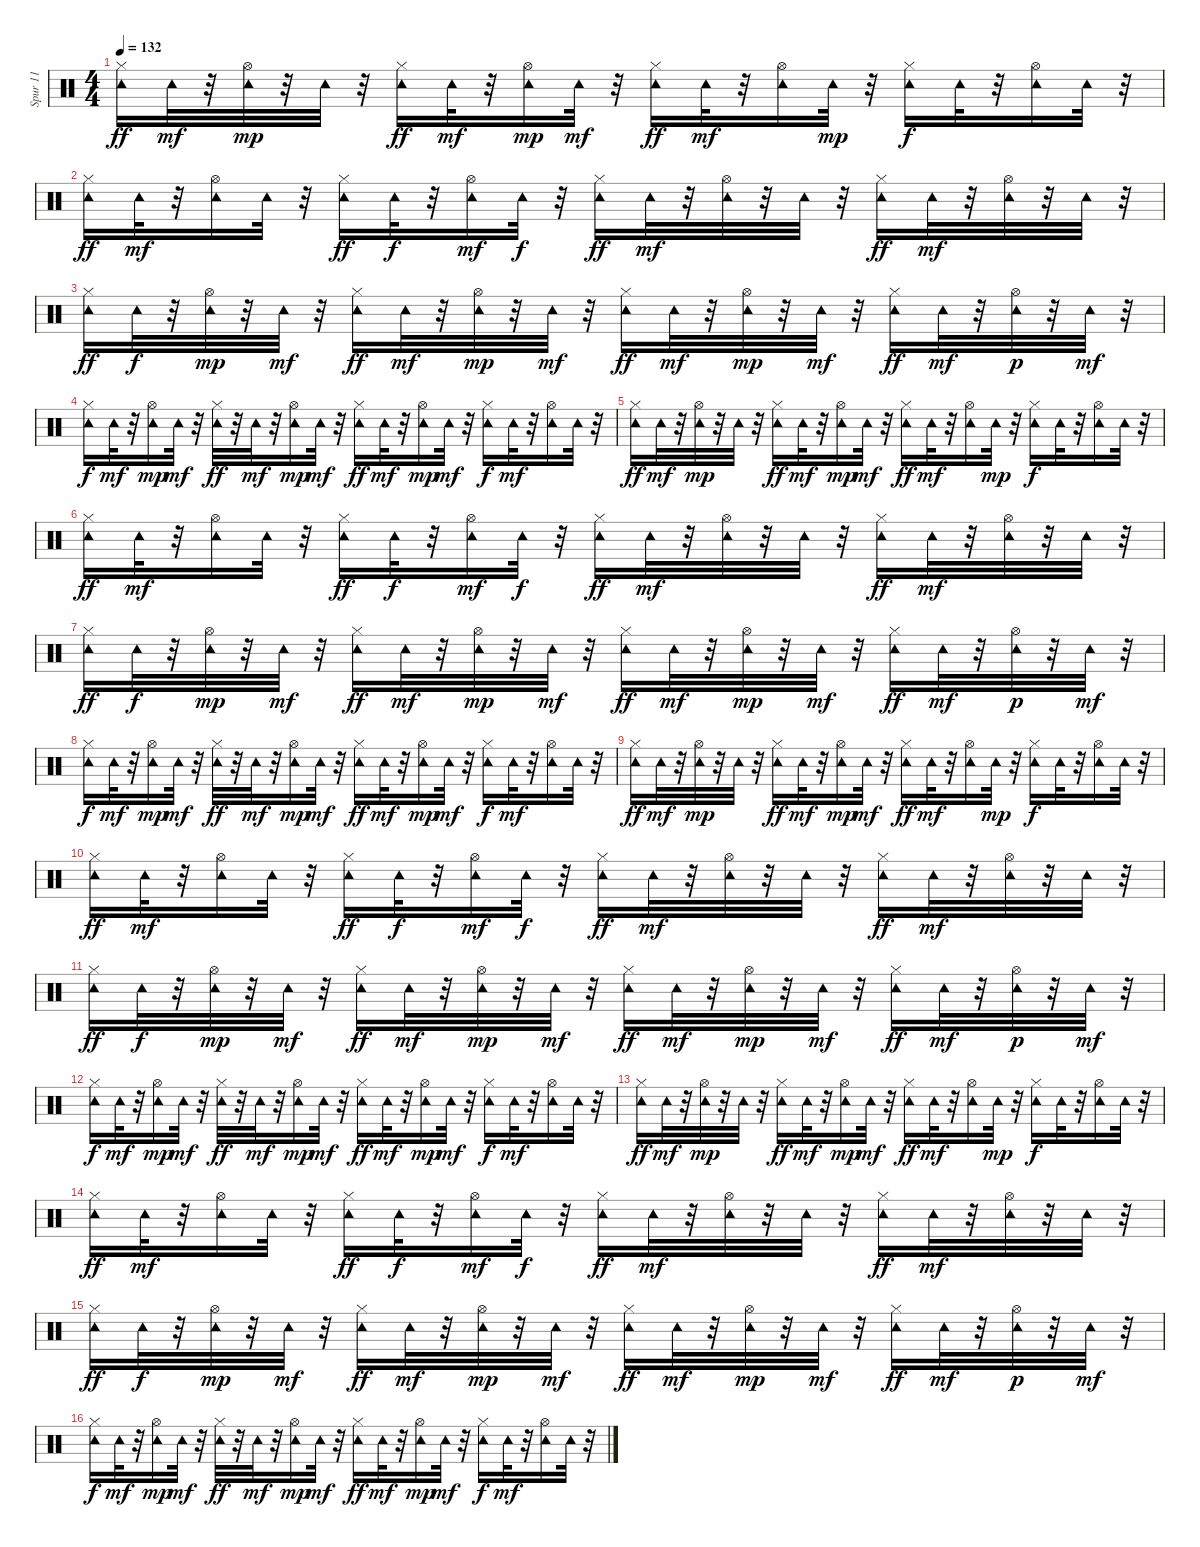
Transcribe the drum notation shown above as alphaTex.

\track ("Spur 11" "Spur 11") {instrument percussion}
\staff {score}
\articulation defaults
\ts (4 4)
\tempo 132
\clef neutral
\ks c
("Tambourine (hit)" "Hi-Hat (closed)").16{dy ff} "Tambourine (hit)".32{dy mf} r.32 ("Tambourine (hit)" "Hi-Hat (open)").32{dy mp} r.32 "Tambourine (hit)".32 r.32 ("Tambourine (hit)" "Hi-Hat (closed)").16{dy ff} "Tambourine (hit)".32{dy mf} r.32 ("Tambourine (hit)" "Hi-Hat (open)").16{dy mp} "Tambourine (hit)".32{dy mf} r.32 ("Tambourine (hit)" "Hi-Hat (closed)").16{dy ff} "Tambourine (hit)".32{dy mf} r.32 ("Tambourine (hit)" "Hi-Hat (open)").16 "Tambourine (hit)".32{dy mp} r.32 ("Tambourine (hit)" "Hi-Hat (closed)").16{dy f} "Tambourine (hit)".32 r.32 ("Tambourine (hit)" "Hi-Hat (open)").16 "Tambourine (hit)".32 r.32 |
("Tambourine (hit)" "Hi-Hat (closed)").16{dy ff} "Tambourine (hit)".32{dy mf} r.32 ("Tambourine (hit)" "Hi-Hat (open)").16 "Tambourine (hit)".32 r.32 ("Tambourine (hit)" "Hi-Hat (closed)").16{dy ff} "Tambourine (hit)".32{dy f} r.32 ("Tambourine (hit)" "Hi-Hat (open)").16{dy mf} "Tambourine (hit)".32{dy f} r.32 ("Tambourine (hit)" "Hi-Hat (closed)").16{dy ff} "Tambourine (hit)".32{dy mf} r.32 ("Tambourine (hit)" "Hi-Hat (open)").32 r.32 "Tambourine (hit)".32 r.32 ("Tambourine (hit)" "Hi-Hat (closed)").16{dy ff} "Tambourine (hit)".32{dy mf} r.32 ("Tambourine (hit)" "Hi-Hat (open)").32 r.32 "Tambourine (hit)".32 r.32 |
("Tambourine (hit)" "Hi-Hat (closed)").16{dy ff} "Tambourine (hit)".32{dy f} r.32 ("Tambourine (hit)" "Hi-Hat (open)").32{dy mp} r.32 "Tambourine (hit)".32{dy mf} r.32 ("Tambourine (hit)" "Hi-Hat (closed)").16{dy ff} "Tambourine (hit)".32{dy mf} r.32 ("Tambourine (hit)" "Hi-Hat (open)").32{dy mp} r.32 "Tambourine (hit)".32{dy mf} r.32 ("Tambourine (hit)" "Hi-Hat (closed)").16{dy ff} "Tambourine (hit)".32{dy mf} r.32 ("Tambourine (hit)" "Hi-Hat (open)").32{dy mp} r.32 "Tambourine (hit)".32{dy mf} r.32 ("Tambourine (hit)" "Hi-Hat (closed)").16{dy ff} "Tambourine (hit)".32{dy mf} r.32 ("Tambourine (hit)" "Hi-Hat (open)").32{dy p} r.32 "Tambourine (hit)".32{dy mf} r.32 |
("Tambourine (hit)" "Hi-Hat (closed)").16{dy f} "Tambourine (hit)".32{dy mf} r.32 ("Tambourine (hit)" "Hi-Hat (open)").16{dy mp} "Tambourine (hit)".32{dy mf} r.32 ("Tambourine (hit)" "Hi-Hat (closed)").32{dy ff} r.32 "Tambourine (hit)".32{dy mf} r.32 ("Tambourine (hit)" "Hi-Hat (open)").16{dy mp} "Tambourine (hit)".32{dy mf} r.32 ("Tambourine (hit)" "Hi-Hat (closed)").16{dy ff} "Tambourine (hit)".32{dy mf} r.32 ("Tambourine (hit)" "Hi-Hat (open)").16{dy mp} "Tambourine (hit)".32{dy mf} r.32 ("Tambourine (hit)" "Hi-Hat (closed)").16{dy f} "Tambourine (hit)".32{dy mf} r.32 ("Tambourine (hit)" "Hi-Hat (open)").16 "Tambourine (hit)".32 r.32 |
("Tambourine (hit)" "Hi-Hat (closed)").16{dy ff} "Tambourine (hit)".32{dy mf} r.32 ("Tambourine (hit)" "Hi-Hat (open)").32{dy mp} r.32 "Tambourine (hit)".32 r.32 ("Tambourine (hit)" "Hi-Hat (closed)").16{dy ff} "Tambourine (hit)".32{dy mf} r.32 ("Tambourine (hit)" "Hi-Hat (open)").16{dy mp} "Tambourine (hit)".32{dy mf} r.32 ("Tambourine (hit)" "Hi-Hat (closed)").16{dy ff} "Tambourine (hit)".32{dy mf} r.32 ("Tambourine (hit)" "Hi-Hat (open)").16 "Tambourine (hit)".32{dy mp} r.32 ("Tambourine (hit)" "Hi-Hat (closed)").16{dy f} "Tambourine (hit)".32 r.32 ("Tambourine (hit)" "Hi-Hat (open)").16 "Tambourine (hit)".32 r.32 |
("Tambourine (hit)" "Hi-Hat (closed)").16{dy ff} "Tambourine (hit)".32{dy mf} r.32 ("Tambourine (hit)" "Hi-Hat (open)").16 "Tambourine (hit)".32 r.32 ("Tambourine (hit)" "Hi-Hat (closed)").16{dy ff} "Tambourine (hit)".32{dy f} r.32 ("Tambourine (hit)" "Hi-Hat (open)").16{dy mf} "Tambourine (hit)".32{dy f} r.32 ("Tambourine (hit)" "Hi-Hat (closed)").16{dy ff} "Tambourine (hit)".32{dy mf} r.32 ("Tambourine (hit)" "Hi-Hat (open)").32 r.32 "Tambourine (hit)".32 r.32 ("Tambourine (hit)" "Hi-Hat (closed)").16{dy ff} "Tambourine (hit)".32{dy mf} r.32 ("Tambourine (hit)" "Hi-Hat (open)").32 r.32 "Tambourine (hit)".32 r.32 |
("Tambourine (hit)" "Hi-Hat (closed)").16{dy ff} "Tambourine (hit)".32{dy f} r.32 ("Tambourine (hit)" "Hi-Hat (open)").32{dy mp} r.32 "Tambourine (hit)".32{dy mf} r.32 ("Tambourine (hit)" "Hi-Hat (closed)").16{dy ff} "Tambourine (hit)".32{dy mf} r.32 ("Tambourine (hit)" "Hi-Hat (open)").32{dy mp} r.32 "Tambourine (hit)".32{dy mf} r.32 ("Tambourine (hit)" "Hi-Hat (closed)").16{dy ff} "Tambourine (hit)".32{dy mf} r.32 ("Tambourine (hit)" "Hi-Hat (open)").32{dy mp} r.32 "Tambourine (hit)".32{dy mf} r.32 ("Tambourine (hit)" "Hi-Hat (closed)").16{dy ff} "Tambourine (hit)".32{dy mf} r.32 ("Tambourine (hit)" "Hi-Hat (open)").32{dy p} r.32 "Tambourine (hit)".32{dy mf} r.32 |
("Tambourine (hit)" "Hi-Hat (closed)").16{dy f} "Tambourine (hit)".32{dy mf} r.32 ("Tambourine (hit)" "Hi-Hat (open)").16{dy mp} "Tambourine (hit)".32{dy mf} r.32 ("Tambourine (hit)" "Hi-Hat (closed)").32{dy ff} r.32 "Tambourine (hit)".32{dy mf} r.32 ("Tambourine (hit)" "Hi-Hat (open)").16{dy mp} "Tambourine (hit)".32{dy mf} r.32 ("Tambourine (hit)" "Hi-Hat (closed)").16{dy ff} "Tambourine (hit)".32{dy mf} r.32 ("Tambourine (hit)" "Hi-Hat (open)").16{dy mp} "Tambourine (hit)".32{dy mf} r.32 ("Tambourine (hit)" "Hi-Hat (closed)").16{dy f} "Tambourine (hit)".32{dy mf} r.32 ("Tambourine (hit)" "Hi-Hat (open)").16 "Tambourine (hit)".32 r.32 |
("Tambourine (hit)" "Hi-Hat (closed)").16{dy ff} "Tambourine (hit)".32{dy mf} r.32 ("Tambourine (hit)" "Hi-Hat (open)").32{dy mp} r.32 "Tambourine (hit)".32 r.32 ("Tambourine (hit)" "Hi-Hat (closed)").16{dy ff} "Tambourine (hit)".32{dy mf} r.32 ("Tambourine (hit)" "Hi-Hat (open)").16{dy mp} "Tambourine (hit)".32{dy mf} r.32 ("Tambourine (hit)" "Hi-Hat (closed)").16{dy ff} "Tambourine (hit)".32{dy mf} r.32 ("Tambourine (hit)" "Hi-Hat (open)").16 "Tambourine (hit)".32{dy mp} r.32 ("Tambourine (hit)" "Hi-Hat (closed)").16{dy f} "Tambourine (hit)".32 r.32 ("Tambourine (hit)" "Hi-Hat (open)").16 "Tambourine (hit)".32 r.32 |
("Tambourine (hit)" "Hi-Hat (closed)").16{dy ff} "Tambourine (hit)".32{dy mf} r.32 ("Tambourine (hit)" "Hi-Hat (open)").16 "Tambourine (hit)".32 r.32 ("Tambourine (hit)" "Hi-Hat (closed)").16{dy ff} "Tambourine (hit)".32{dy f} r.32 ("Tambourine (hit)" "Hi-Hat (open)").16{dy mf} "Tambourine (hit)".32{dy f} r.32 ("Tambourine (hit)" "Hi-Hat (closed)").16{dy ff} "Tambourine (hit)".32{dy mf} r.32 ("Tambourine (hit)" "Hi-Hat (open)").32 r.32 "Tambourine (hit)".32 r.32 ("Tambourine (hit)" "Hi-Hat (closed)").16{dy ff} "Tambourine (hit)".32{dy mf} r.32 ("Tambourine (hit)" "Hi-Hat (open)").32 r.32 "Tambourine (hit)".32 r.32 |
("Tambourine (hit)" "Hi-Hat (closed)").16{dy ff} "Tambourine (hit)".32{dy f} r.32 ("Tambourine (hit)" "Hi-Hat (open)").32{dy mp} r.32 "Tambourine (hit)".32{dy mf} r.32 ("Tambourine (hit)" "Hi-Hat (closed)").16{dy ff} "Tambourine (hit)".32{dy mf} r.32 ("Tambourine (hit)" "Hi-Hat (open)").32{dy mp} r.32 "Tambourine (hit)".32{dy mf} r.32 ("Tambourine (hit)" "Hi-Hat (closed)").16{dy ff} "Tambourine (hit)".32{dy mf} r.32 ("Tambourine (hit)" "Hi-Hat (open)").32{dy mp} r.32 "Tambourine (hit)".32{dy mf} r.32 ("Tambourine (hit)" "Hi-Hat (closed)").16{dy ff} "Tambourine (hit)".32{dy mf} r.32 ("Tambourine (hit)" "Hi-Hat (open)").32{dy p} r.32 "Tambourine (hit)".32{dy mf} r.32 |
("Tambourine (hit)" "Hi-Hat (closed)").16{dy f} "Tambourine (hit)".32{dy mf} r.32 ("Tambourine (hit)" "Hi-Hat (open)").16{dy mp} "Tambourine (hit)".32{dy mf} r.32 ("Tambourine (hit)" "Hi-Hat (closed)").32{dy ff} r.32 "Tambourine (hit)".32{dy mf} r.32 ("Tambourine (hit)" "Hi-Hat (open)").16{dy mp} "Tambourine (hit)".32{dy mf} r.32 ("Tambourine (hit)" "Hi-Hat (closed)").16{dy ff} "Tambourine (hit)".32{dy mf} r.32 ("Tambourine (hit)" "Hi-Hat (open)").16{dy mp} "Tambourine (hit)".32{dy mf} r.32 ("Tambourine (hit)" "Hi-Hat (closed)").16{dy f} "Tambourine (hit)".32{dy mf} r.32 ("Tambourine (hit)" "Hi-Hat (open)").16 "Tambourine (hit)".32 r.32 |
("Tambourine (hit)" "Hi-Hat (closed)").16{dy ff} "Tambourine (hit)".32{dy mf} r.32 ("Tambourine (hit)" "Hi-Hat (open)").32{dy mp} r.32 "Tambourine (hit)".32 r.32 ("Tambourine (hit)" "Hi-Hat (closed)").16{dy ff} "Tambourine (hit)".32{dy mf} r.32 ("Tambourine (hit)" "Hi-Hat (open)").16{dy mp} "Tambourine (hit)".32{dy mf} r.32 ("Tambourine (hit)" "Hi-Hat (closed)").16{dy ff} "Tambourine (hit)".32{dy mf} r.32 ("Tambourine (hit)" "Hi-Hat (open)").16 "Tambourine (hit)".32{dy mp} r.32 ("Tambourine (hit)" "Hi-Hat (closed)").16{dy f} "Tambourine (hit)".32 r.32 ("Tambourine (hit)" "Hi-Hat (open)").16 "Tambourine (hit)".32 r.32 |
("Tambourine (hit)" "Hi-Hat (closed)").16{dy ff} "Tambourine (hit)".32{dy mf} r.32 ("Tambourine (hit)" "Hi-Hat (open)").16 "Tambourine (hit)".32 r.32 ("Tambourine (hit)" "Hi-Hat (closed)").16{dy ff} "Tambourine (hit)".32{dy f} r.32 ("Tambourine (hit)" "Hi-Hat (open)").16{dy mf} "Tambourine (hit)".32{dy f} r.32 ("Tambourine (hit)" "Hi-Hat (closed)").16{dy ff} "Tambourine (hit)".32{dy mf} r.32 ("Tambourine (hit)" "Hi-Hat (open)").32 r.32 "Tambourine (hit)".32 r.32 ("Tambourine (hit)" "Hi-Hat (closed)").16{dy ff} "Tambourine (hit)".32{dy mf} r.32 ("Tambourine (hit)" "Hi-Hat (open)").32 r.32 "Tambourine (hit)".32 r.32 |
("Tambourine (hit)" "Hi-Hat (closed)").16{dy ff} "Tambourine (hit)".32{dy f} r.32 ("Tambourine (hit)" "Hi-Hat (open)").32{dy mp} r.32 "Tambourine (hit)".32{dy mf} r.32 ("Tambourine (hit)" "Hi-Hat (closed)").16{dy ff} "Tambourine (hit)".32{dy mf} r.32 ("Tambourine (hit)" "Hi-Hat (open)").32{dy mp} r.32 "Tambourine (hit)".32{dy mf} r.32 ("Tambourine (hit)" "Hi-Hat (closed)").16{dy ff} "Tambourine (hit)".32{dy mf} r.32 ("Tambourine (hit)" "Hi-Hat (open)").32{dy mp} r.32 "Tambourine (hit)".32{dy mf} r.32 ("Tambourine (hit)" "Hi-Hat (closed)").16{dy ff} "Tambourine (hit)".32{dy mf} r.32 ("Tambourine (hit)" "Hi-Hat (open)").32{dy p} r.32 "Tambourine (hit)".32{dy mf} r.32 |
("Tambourine (hit)" "Hi-Hat (closed)").16{dy f} "Tambourine (hit)".32{dy mf} r.32 ("Tambourine (hit)" "Hi-Hat (open)").16{dy mp} "Tambourine (hit)".32{dy mf} r.32 ("Tambourine (hit)" "Hi-Hat (closed)").32{dy ff} r.32 "Tambourine (hit)".32{dy mf} r.32 ("Tambourine (hit)" "Hi-Hat (open)").16{dy mp} "Tambourine (hit)".32{dy mf} r.32 ("Tambourine (hit)" "Hi-Hat (closed)").16{dy ff} "Tambourine (hit)".32{dy mf} r.32 ("Tambourine (hit)" "Hi-Hat (open)").16{dy mp} "Tambourine (hit)".32{dy mf} r.32 ("Tambourine (hit)" "Hi-Hat (closed)").16{dy f} "Tambourine (hit)".32{dy mf} r.32 ("Tambourine (hit)" "Hi-Hat (open)").16 "Tambourine (hit)".32 r.32
